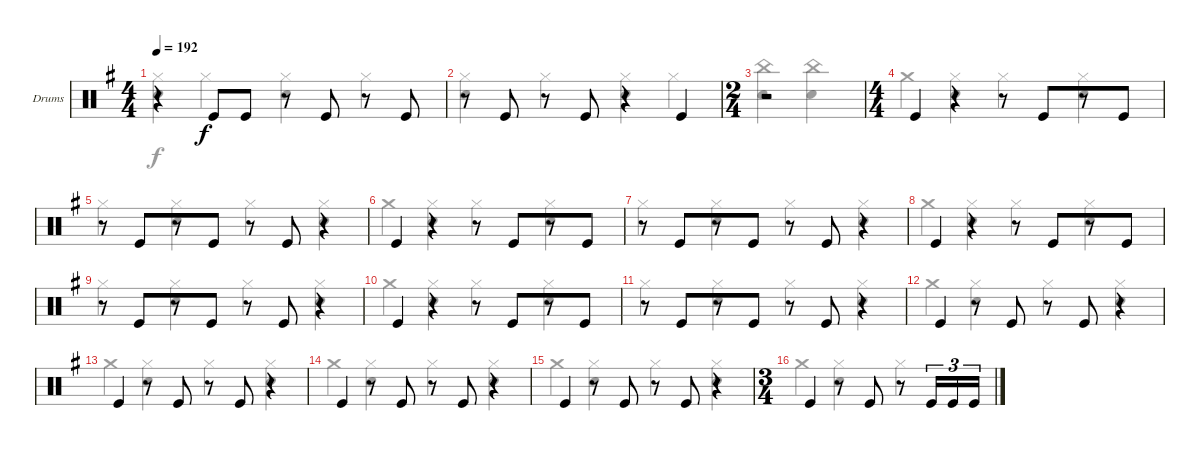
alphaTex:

\bracketExtendMode groupsimilarinstruments
\firstSystemTrackNameOrientation horizontal
\otherSystemsTrackNameOrientation horizontal
\track ("Drumkit" "Drums") {instrument percussion}
\staff {score}
\articulation defaults
\voice
\ts (4 4)
\tempo 192
\clef neutral
\scale
1.04288
\ks g
r.4{dy f} "Kick (hit)".8 "Kick (hit)".8 r.8 "Kick (hit)".8 r.8 "Kick (hit)".8 |
\scale
0.957125 r.8 "Kick (hit)".8 r.8 "Kick (hit)".8 r.4 "Kick (hit)".4 |
\ts (2 4)
\beaming (8 4 4)
\scale
1.07314 r.2 |
\ts (4 4)
\beaming (8 4 4)
\scale
0.92686 "Kick (hit)".4 r.4 r.8 "Kick (hit)".8 r.8 "Kick (hit)".8 |
\scale
1.04288 r.8 "Kick (hit)".8 r.8 "Kick (hit)".8 r.8 "Kick (hit)".8 r.4 |
\scale
0.957125 "Kick (hit)".4 r.4 r.8 "Kick (hit)".8 r.8 "Kick (hit)".8 |
\scale
1.04288 r.8 "Kick (hit)".8 r.8 "Kick (hit)".8 r.8 "Kick (hit)".8 r.4 |
\scale
0.957125 "Kick (hit)".4 r.4 r.8 "Kick (hit)".8 r.8 "Kick (hit)".8 |
\scale
1.04288 r.8 "Kick (hit)".8 r.8 "Kick (hit)".8 r.8 "Kick (hit)".8 r.4 |
\scale
0.957125 "Kick (hit)".4 r.4 r.8 "Kick (hit)".8 r.8 "Kick (hit)".8 |
\scale
1.04288 r.8 "Kick (hit)".8 r.8 "Kick (hit)".8 r.8 "Kick (hit)".8 r.4 |
\scale
0.957125 "Kick (hit)".4 r.8 "Kick (hit)".8 r.8 "Kick (hit)".8 r.4 |
\scale
1.04288 "Kick (hit)".4 r.8 "Kick (hit)".8 r.8 "Kick (hit)".8 r.4 |
\scale
0.957125 "Kick (hit)".4 r.8 "Kick (hit)".8 r.8 "Kick (hit)".8 r.4 |
\scale
1.04288 "Kick (hit)".4 r.8 "Kick (hit)".8 r.8 "Kick (hit)".8 r.4 |
\ts (3 4)
\beaming (8 4 4)
\scale
0.957125 "Kick (hit)".4 r.8 "Kick (hit)".8 r.8 "Kick (hit)".16{tu (3 2)} "Kick (hit)".16{tu (3 2)} "Kick (hit)".16{tu (3 2)}
\voice
\clef neutral
\ottava regular
\simile none
\scale
1.04288
\ks g
("Hi-Hat (closed)" "Snare (hit) 2").4{dy f} "Hi-Hat (closed)".4 ("Hi-Hat (closed)" "Snare (hit) 2").4 "Hi-Hat (closed)".4 |
\scale
0.957125 ("Hi-Hat (closed)" "Snare (hit) 2").4 "Hi-Hat (closed)".4 ("Hi-Hat (closed)" "Snare (hit) 2").4 "Hi-Hat (closed)".4 |
\scale
1.07314 ("China (hit)" "Snare (hit) 2").4 ("China (hit)" "Snare (hit) 2").4 |
\scale
0.92686 "Crash medium (hit)".4 ("Hi-Hat (closed)" "Snare (hit) 2").4 "Hi-Hat (closed)".4 ("Hi-Hat (closed)" "Snare (hit) 2").4 |
\scale
1.04288 "Hi-Hat (closed)".4 ("Hi-Hat (closed)" "Snare (hit) 2").4 "Hi-Hat (closed)".4 ("Hi-Hat (closed)" "Snare (hit) 2").4 |
\scale
0.957125 "Crash medium (hit)".4 ("Hi-Hat (closed)" "Snare (hit) 2").4 "Hi-Hat (closed)".4 ("Hi-Hat (closed)" "Snare (hit) 2").4 |
\scale
1.04288 "Hi-Hat (closed)".4 ("Hi-Hat (closed)" "Snare (hit) 2").4 "Hi-Hat (closed)".4 ("Hi-Hat (closed)" "Snare (hit) 2").4 |
\scale
0.957125 "Crash medium (hit)".4 ("Hi-Hat (closed)" "Snare (hit) 2").4 "Hi-Hat (closed)".4 ("Hi-Hat (closed)" "Snare (hit) 2").4 |
\scale
1.04288 "Hi-Hat (closed)".4 ("Hi-Hat (closed)" "Snare (hit) 2").4 "Hi-Hat (closed)".4 ("Hi-Hat (closed)" "Snare (hit) 2").4 |
\scale
0.957125 "Crash medium (hit)".4 ("Hi-Hat (closed)" "Snare (hit) 2").4 "Hi-Hat (closed)".4 ("Hi-Hat (closed)" "Snare (hit) 2").4 |
\scale
1.04288 "Hi-Hat (closed)".4 ("Hi-Hat (closed)" "Snare (hit) 2").4 "Hi-Hat (closed)".4 ("Hi-Hat (closed)" "Snare (hit) 2").4 |
\scale
0.957125 "Crash medium (hit)".4 ("Hi-Hat (closed)" "Snare (hit) 2").4 "Hi-Hat (closed)".4 ("Hi-Hat (closed)" "Snare (hit) 2").4 |
\scale
1.04288 "Crash medium (hit)".4 ("Hi-Hat (closed)" "Snare (hit) 2").4 "Hi-Hat (closed)".4 ("Hi-Hat (closed)" "Snare (hit) 2").4 |
\scale
0.957125 "Crash medium (hit)".4 ("Hi-Hat (closed)" "Snare (hit) 2").4 "Hi-Hat (closed)".4 ("Hi-Hat (closed)" "Snare (hit) 2").4 |
\scale
1.04288 "Crash medium (hit)".4 ("Hi-Hat (closed)" "Snare (hit) 2").4 "Hi-Hat (closed)".4 ("Hi-Hat (closed)" "Snare (hit) 2").4 |
\scale
0.957125 "Crash medium (hit)".4 ("Hi-Hat (closed)" "Snare (hit) 2").4 "Hi-Hat (closed)".4
